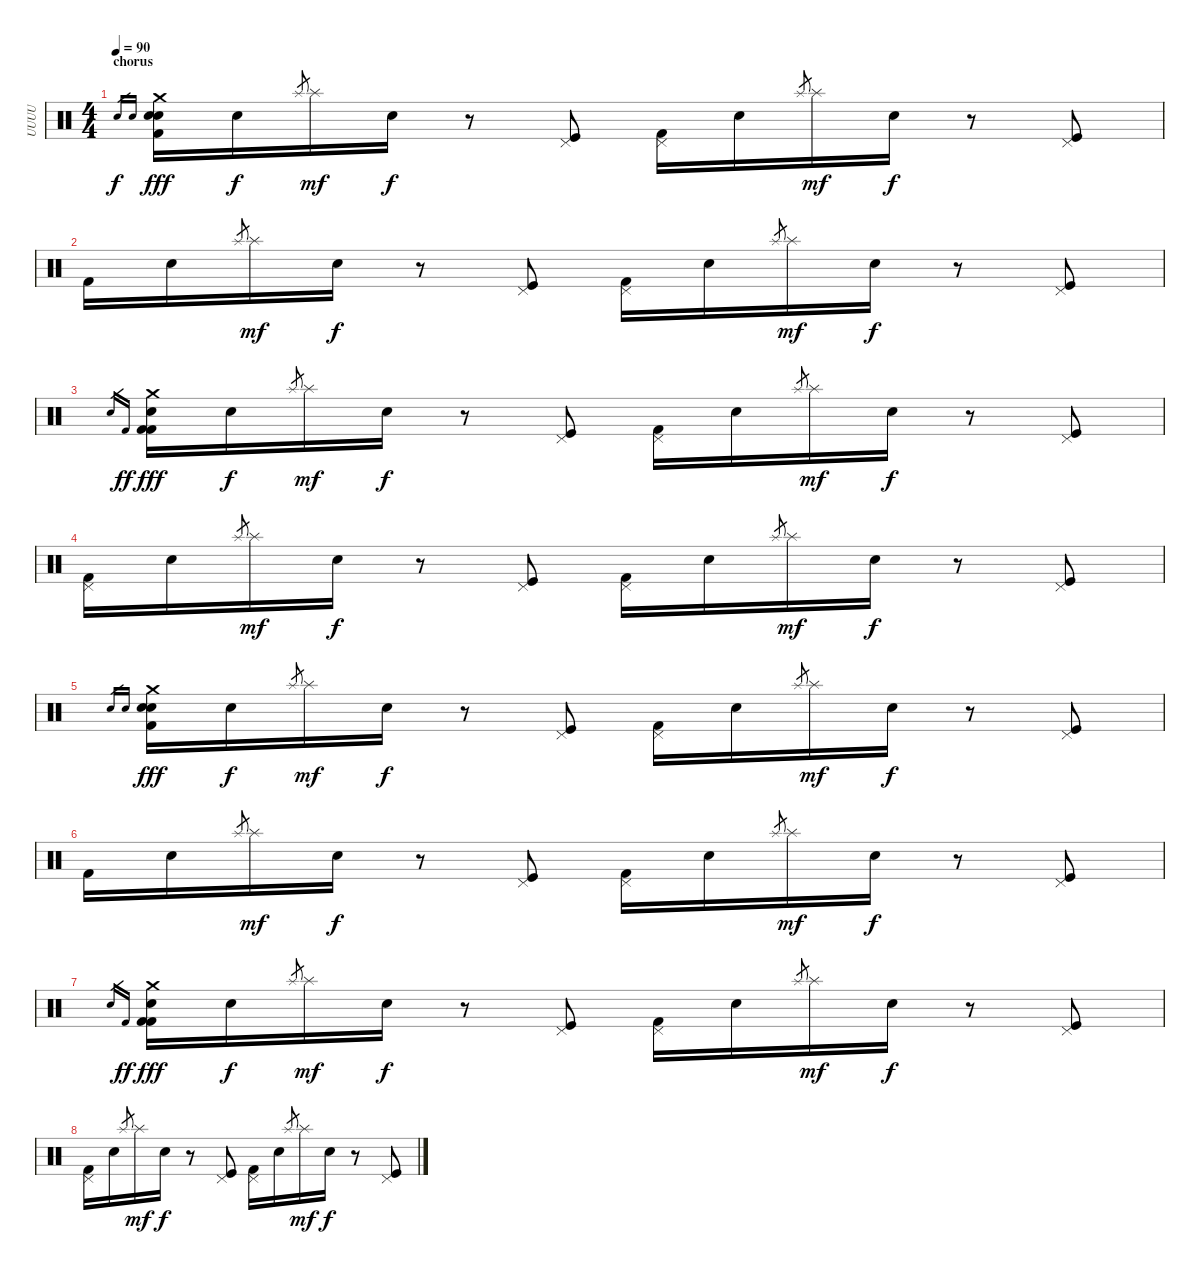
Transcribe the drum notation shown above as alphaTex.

\track ("UUUU" "UUUU") {instrument percussion}
\staff {score}
\articulation defaults
\ts (4 4)
\section ("" "chorus")
\tempo 90
\clef neutral
\ks c "Electric Snare (hit)".16{gr dy f} "Snare (hit) 2".16{gr}
("Crash medium (hit)" "Kick (hit) 2" "Electric Snare (hit)" "Snare (hit) 2").16{dy fff} "Snare (hit) 2".16{dy f} "Splash (hit)".8{gr} "Splash (hit)".16{dy mf} "Electric Snare (hit)".16{dy f} r.8 ("Pedal Hi-Hat (hit)" "Kick (hit)").8 ("Pedal Hi-Hat (hit)" "Kick (hit) 2").16 "Snare (hit) 2".16 "Splash (hit)"{h}.8{gr} "Splash (hit)".16{dy mf} "Electric Snare (hit)".16{dy f} r.8 ("Pedal Hi-Hat (hit)" "Kick (hit)").8 |
"Kick (hit) 2".16 "Snare (hit) 2".16 "Splash (hit)".8{gr} "Splash (hit)".16{dy mf} "Electric Snare (hit)".16{dy f} r.8 ("Pedal Hi-Hat (hit)" "Kick (hit)").8 ("Pedal Hi-Hat (hit)" "Kick (hit) 2").16 "Snare (hit) 2".16 "Splash (hit)".8{gr} "Splash (hit)".16{dy mf} "Electric Snare (hit)".16{dy f} r.8 ("Pedal Hi-Hat (hit)" "Kick (hit)").8 |
"Electric Snare (hit)".16{gr} "Kick (hit) 2".16{gr dy ff} ("Crash medium (hit)" "Kick (hit) 2" "Electric Snare (hit)" "Kick (hit) 2").16{dy fff} "Snare (hit) 2".16{dy f} "Splash (hit)".8{gr} "Splash (hit)".16{dy mf} "Electric Snare (hit)".16{dy f} r.8 ("Pedal Hi-Hat (hit)" "Kick (hit)").8 ("Pedal Hi-Hat (hit)" "Kick (hit) 2").16 "Snare (hit) 2".16 "Splash (hit)".8{gr} "Splash (hit)".16{dy mf} "Electric Snare (hit)".16{dy f} r.8 ("Pedal Hi-Hat (hit)" "Kick (hit)").8 |
("Pedal Hi-Hat (hit)" "Kick (hit) 2").16 "Snare (hit) 2".16 "Splash (hit)".8{gr} "Splash (hit)".16{dy mf} "Electric Snare (hit)".16{dy f} r.8 ("Pedal Hi-Hat (hit)" "Kick (hit)").8 ("Pedal Hi-Hat (hit)" "Kick (hit) 2").16 "Snare (hit) 2".16 "Splash (hit)"{h}.8{gr} "Splash (hit)".16{dy mf} "Electric Snare (hit)".16{dy f} r.8 ("Pedal Hi-Hat (hit)" "Kick (hit)").8 |
"Electric Snare (hit)".16{gr} "Snare (hit) 2".16{gr} ("Crash medium (hit)" "Kick (hit) 2" "Electric Snare (hit)" "Snare (hit) 2").16{dy fff} "Snare (hit) 2".16{dy f} "Splash (hit)".8{gr} "Splash (hit)".16{dy mf} "Electric Snare (hit)".16{dy f} r.8 ("Pedal Hi-Hat (hit)" "Kick (hit)").8 ("Pedal Hi-Hat (hit)" "Kick (hit) 2").16 "Snare (hit) 2".16 "Splash (hit)"{h}.8{gr} "Splash (hit)".16{dy mf} "Electric Snare (hit)".16{dy f} r.8 ("Pedal Hi-Hat (hit)" "Kick (hit)").8 |
"Kick (hit) 2".16 "Snare (hit) 2".16 "Splash (hit)".8{gr} "Splash (hit)".16{dy mf} "Electric Snare (hit)".16{dy f} r.8 ("Pedal Hi-Hat (hit)" "Kick (hit)").8 ("Pedal Hi-Hat (hit)" "Kick (hit) 2").16 "Snare (hit) 2".16 "Splash (hit)".8{gr} "Splash (hit)".16{dy mf} "Electric Snare (hit)".16{dy f} r.8 ("Pedal Hi-Hat (hit)" "Kick (hit)").8 |
"Electric Snare (hit)".16{gr} "Kick (hit) 2".16{gr dy ff} ("Crash medium (hit)" "Kick (hit) 2" "Electric Snare (hit)" "Kick (hit) 2").16{dy fff} "Snare (hit) 2".16{dy f} "Splash (hit)".8{gr} "Splash (hit)".16{dy mf} "Electric Snare (hit)".16{dy f} r.8 ("Pedal Hi-Hat (hit)" "Kick (hit)").8 ("Pedal Hi-Hat (hit)" "Kick (hit) 2").16 "Snare (hit) 2".16 "Splash (hit)".8{gr} "Splash (hit)".16{dy mf} "Electric Snare (hit)".16{dy f} r.8 ("Pedal Hi-Hat (hit)" "Kick (hit)").8 |
("Pedal Hi-Hat (hit)" "Kick (hit) 2").16 "Snare (hit) 2".16 "Splash (hit)".8{gr} "Splash (hit)".16{dy mf} "Electric Snare (hit)".16{dy f} r.8 ("Pedal Hi-Hat (hit)" "Kick (hit)").8 ("Pedal Hi-Hat (hit)" "Kick (hit) 2").16 "Snare (hit) 2".16 "Splash (hit)"{h}.8{gr} "Splash (hit)".16{dy mf} "Electric Snare (hit)".16{dy f} r.8 ("Pedal Hi-Hat (hit)" "Kick (hit)").8
